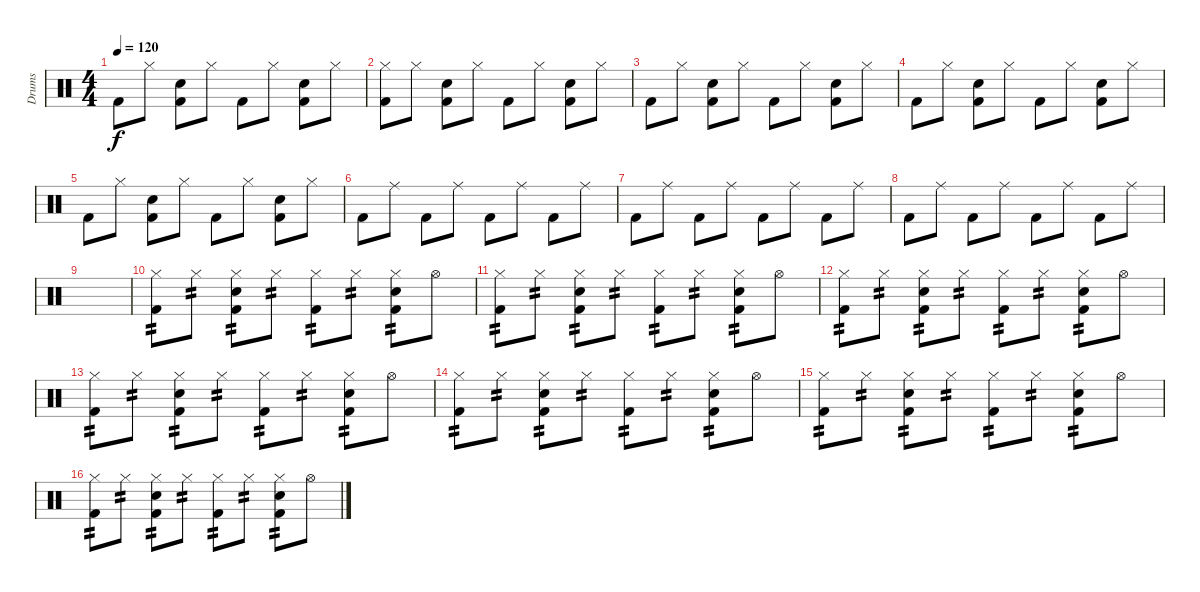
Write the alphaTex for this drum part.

\track ("Drums" "Drums") {instrument percussion}
\staff {score}
\articulation defaults
\ts (4 4)
\tempo 120
\clef neutral
\ks c "Kick (hit) 2".8{dy f} "Hi-Hat (closed)".8
("Snare (hit) 2" "Kick (hit) 2").8 "Hi-Hat (closed)".8 "Kick (hit) 2".8 "Hi-Hat (closed)".8 ("Snare (hit) 2" "Kick (hit) 2").8 "Hi-Hat (closed)".8 |
("Hi-Hat (closed)" "Kick (hit) 2").8 "Hi-Hat (closed)".8 ("Snare (hit) 2" "Kick (hit) 2").8 "Hi-Hat (closed)".8 "Kick (hit) 2".8 "Hi-Hat (closed)".8 ("Snare (hit) 2" "Kick (hit) 2").8 "Hi-Hat (closed)".8 |
"Kick (hit) 2".8 "Hi-Hat (closed)".8 ("Snare (hit) 2" "Kick (hit) 2").8 "Hi-Hat (closed)".8 "Kick (hit) 2".8 "Hi-Hat (closed)".8 ("Snare (hit) 2" "Kick (hit) 2").8 "Hi-Hat (closed)".8 |
"Kick (hit) 2".8 "Hi-Hat (closed)".8 ("Snare (hit) 2" "Kick (hit) 2").8 "Hi-Hat (closed)".8 "Kick (hit) 2".8 "Hi-Hat (closed)".8 ("Snare (hit) 2" "Kick (hit) 2").8 "Hi-Hat (closed)".8 |
"Kick (hit) 2".8 "Hi-Hat (closed)".8 ("Snare (hit) 2" "Kick (hit) 2").8 "Hi-Hat (closed)".8 "Kick (hit) 2".8 "Hi-Hat (closed)".8 ("Snare (hit) 2" "Kick (hit) 2").8 "Hi-Hat (closed)".8 |
"Kick (hit) 2".8 "Ride (middle)".8 "Kick (hit) 2".8 "Ride (middle)".8 "Kick (hit) 2".8 "Ride (middle)".8 "Kick (hit) 2".8 "Ride (middle)".8 |
"Kick (hit) 2".8 "Ride (middle)".8 "Kick (hit) 2".8 "Ride (middle)".8 "Kick (hit) 2".8 "Ride (middle)".8 "Kick (hit) 2".8 "Ride (middle)".8 |
"Kick (hit) 2".8 "Ride (middle)".8 "Kick (hit) 2".8 "Ride (middle)".8 "Kick (hit) 2".8 "Ride (middle)".8 "Kick (hit) 2".8 "Ride (middle)".8 |
|
("Hi-Hat (closed)" "Kick (hit) 2").8{tp 2} "Hi-Hat (closed)".8{tp 2} ("Hi-Hat (closed)" "Snare (hit) 2" "Kick (hit) 2").8{tp 2} "Hi-Hat (closed)".8{tp 2} ("Hi-Hat (closed)" "Kick (hit) 2").8{tp 2} "Hi-Hat (closed)".8{tp 2} ("Hi-Hat (closed)" "Snare (hit) 2" "Kick (hit) 2").8{tp 2} "Hi-Hat (open)".8 |
("Hi-Hat (closed)" "Kick (hit) 2").8{tp 2} "Hi-Hat (closed)".8{tp 2} ("Hi-Hat (closed)" "Snare (hit) 2" "Kick (hit) 2").8{tp 2} "Hi-Hat (closed)".8{tp 2} ("Hi-Hat (closed)" "Kick (hit) 2").8{tp 2} "Hi-Hat (closed)".8{tp 2} ("Hi-Hat (closed)" "Snare (hit) 2" "Kick (hit) 2").8{tp 2} "Hi-Hat (open)".8 |
("Hi-Hat (closed)" "Kick (hit) 2").8{tp 2} "Hi-Hat (closed)".8{tp 2} ("Hi-Hat (closed)" "Snare (hit) 2" "Kick (hit) 2").8{tp 2} "Hi-Hat (closed)".8{tp 2} ("Hi-Hat (closed)" "Kick (hit) 2").8{tp 2} "Hi-Hat (closed)".8{tp 2} ("Hi-Hat (closed)" "Snare (hit) 2" "Kick (hit) 2").8{tp 2} "Hi-Hat (open)".8 |
("Hi-Hat (closed)" "Kick (hit) 2").8{tp 2} "Hi-Hat (closed)".8{tp 2} ("Hi-Hat (closed)" "Snare (hit) 2" "Kick (hit) 2").8{tp 2} "Hi-Hat (closed)".8{tp 2} ("Hi-Hat (closed)" "Kick (hit) 2").8{tp 2} "Hi-Hat (closed)".8{tp 2} ("Hi-Hat (closed)" "Snare (hit) 2" "Kick (hit) 2").8{tp 2} "Hi-Hat (open)".8 |
("Hi-Hat (closed)" "Kick (hit) 2").8{tp 2} "Hi-Hat (closed)".8{tp 2} ("Hi-Hat (closed)" "Snare (hit) 2" "Kick (hit) 2").8{tp 2} "Hi-Hat (closed)".8{tp 2} ("Hi-Hat (closed)" "Kick (hit) 2").8{tp 2} "Hi-Hat (closed)".8{tp 2} ("Hi-Hat (closed)" "Snare (hit) 2" "Kick (hit) 2").8{tp 2} "Hi-Hat (open)".8 |
("Hi-Hat (closed)" "Kick (hit) 2").8{tp 2} "Hi-Hat (closed)".8{tp 2} ("Hi-Hat (closed)" "Snare (hit) 2" "Kick (hit) 2").8{tp 2} "Hi-Hat (closed)".8{tp 2} ("Hi-Hat (closed)" "Kick (hit) 2").8{tp 2} "Hi-Hat (closed)".8{tp 2} ("Hi-Hat (closed)" "Snare (hit) 2" "Kick (hit) 2").8{tp 2} "Hi-Hat (open)".8 |
("Hi-Hat (closed)" "Kick (hit) 2").8{tp 2} "Hi-Hat (closed)".8{tp 2} ("Hi-Hat (closed)" "Snare (hit) 2" "Kick (hit) 2").8{tp 2} "Hi-Hat (closed)".8{tp 2} ("Hi-Hat (closed)" "Kick (hit) 2").8{tp 2} "Hi-Hat (closed)".8{tp 2} ("Hi-Hat (closed)" "Snare (hit) 2" "Kick (hit) 2").8{tp 2} "Hi-Hat (open)".8
